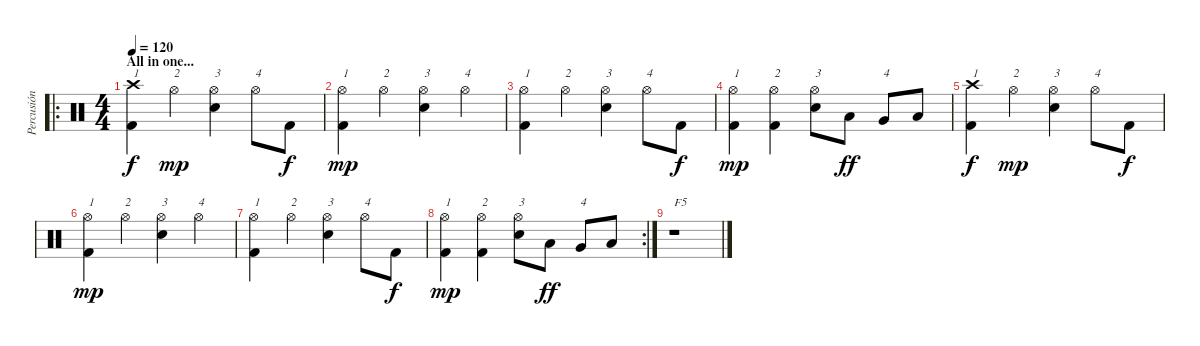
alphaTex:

\track ("Percusión" "Percusión") {instrument percussion}
\staff {score}
\articulation defaults
\ro
\ts (4 4)
\section ("" "All in one...")
\tempo 120
\clef neutral
\ks c
("Crash high (hit)" "Kick (hit) 2").4{txt "1" dy f} "Hi-Hat (open)".4{txt "2" dy mp} ("Hi-Hat (open)" "Electric Snare (hit)").4{txt "3"} "Hi-Hat (open)".8{txt "4"} "Kick (hit) 2".8{dy f} |
("Hi-Hat (open)" "Kick (hit) 2").4{txt "1" dy mp} "Hi-Hat (open)".4{txt "2"} ("Hi-Hat (open)" "Electric Snare (hit)").4{txt "3"} "Hi-Hat (open)".4{txt "4"} |
("Hi-Hat (open)" "Kick (hit) 2").4{txt "1"} "Hi-Hat (open)".4{txt "2"} ("Hi-Hat (open)" "Electric Snare (hit)").4{txt "3"} "Hi-Hat (open)".8{txt "4"} "Kick (hit) 2".8{dy f} |
("Hi-Hat (open)" "Kick (hit) 2").4{txt "1" dy mp} ("Hi-Hat (open)" "Kick (hit) 2").4{txt "2"} ("Hi-Hat (open)" "Electric Snare (hit)").8{txt "3"} "Low Tom (hit)".8{dy ff} "Very Low Tom (hit)".8{txt "4"} "Low Floor Tom (hit)".8 |
("Crash high (hit)" "Kick (hit) 2").4{txt "1" dy f} "Hi-Hat (open)".4{txt "2" dy mp} ("Hi-Hat (open)" "Electric Snare (hit)").4{txt "3"} "Hi-Hat (open)".8{txt "4"} "Kick (hit) 2".8{dy f} |
("Hi-Hat (open)" "Kick (hit) 2").4{txt "1" dy mp} "Hi-Hat (open)".4{txt "2"} ("Hi-Hat (open)" "Electric Snare (hit)").4{txt "3"} "Hi-Hat (open)".4{txt "4"} |
("Hi-Hat (open)" "Kick (hit) 2").4{txt "1"} "Hi-Hat (open)".4{txt "2"} ("Hi-Hat (open)" "Electric Snare (hit)").4{txt "3"} "Hi-Hat (open)".8{txt "4"} "Kick (hit) 2".8{dy f} |
\rc 2
("Hi-Hat (open)" "Kick (hit) 2").4{txt "1" dy mp} ("Hi-Hat (open)" "Kick (hit) 2").4{txt "2"} ("Hi-Hat (open)" "Electric Snare (hit)").8{txt "3"} "Low Tom (hit)".8{dy ff} "Very Low Tom (hit)".8{txt "4"} "Low Floor Tom (hit)".8 |
r.1{txt "F5"}
